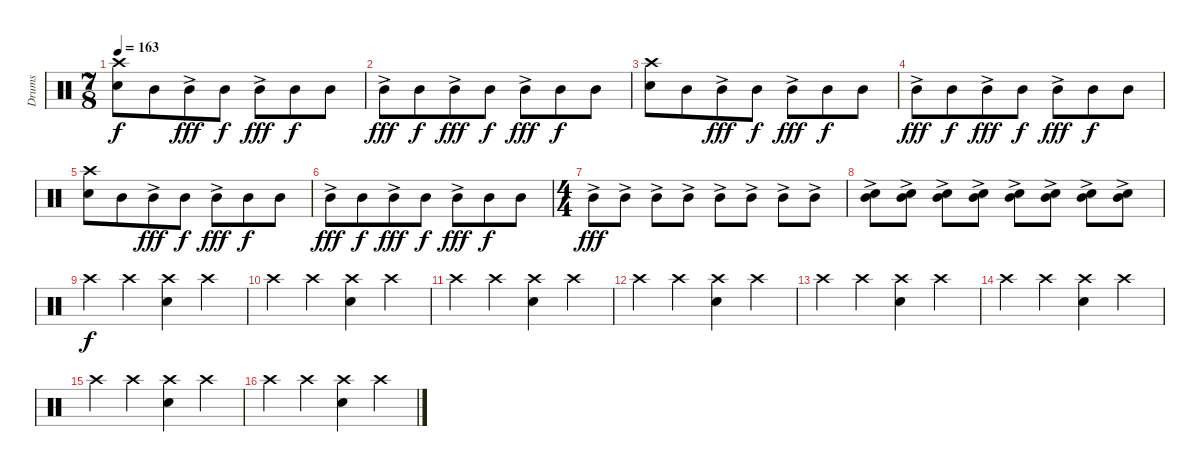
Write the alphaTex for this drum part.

\track ("Drums" "Drums") {instrument percussion}
\staff {score}
\articulation defaults
\ts (7 8)
\tempo 163
\clef neutral
\ks c
("Crash high (hit)" "Snare (hit) 2").8{dy f} "Mid Tom (hit)".8 "Mid Tom (hit)"{ac}.8{dy fff} "Mid Tom (hit)".8{dy f} "Mid Tom (hit)"{ac}.8{dy fff} "Mid Tom (hit)".8{dy f} "Mid Tom (hit)".8 |
"Mid Tom (hit)"{ac}.8{dy fff} "Mid Tom (hit)".8{dy f} "Mid Tom (hit)"{ac}.8{dy fff} "Mid Tom (hit)".8{dy f} "Mid Tom (hit)"{ac}.8{dy fff} "Mid Tom (hit)".8{dy f} "Mid Tom (hit)".8 |
("Crash high (hit)" "Snare (hit) 2").8 "Mid Tom (hit)".8 "Mid Tom (hit)"{ac}.8{dy fff} "Mid Tom (hit)".8{dy f} "Mid Tom (hit)"{ac}.8{dy fff} "Mid Tom (hit)".8{dy f} "Mid Tom (hit)".8 |
"Mid Tom (hit)"{ac}.8{dy fff} "Mid Tom (hit)".8{dy f} "Mid Tom (hit)"{ac}.8{dy fff} "Mid Tom (hit)".8{dy f} "Mid Tom (hit)"{ac}.8{dy fff} "Mid Tom (hit)".8{dy f} "Mid Tom (hit)".8 |
("Crash high (hit)" "Snare (hit) 2").8 "Mid Tom (hit)".8 "Mid Tom (hit)"{ac}.8{dy fff} "Mid Tom (hit)".8{dy f} "Mid Tom (hit)"{ac}.8{dy fff} "Mid Tom (hit)".8{dy f} "Mid Tom (hit)".8 |
"Mid Tom (hit)"{ac}.8{dy fff} "Mid Tom (hit)".8{dy f} "Mid Tom (hit)"{ac}.8{dy fff} "Mid Tom (hit)".8{dy f} "Mid Tom (hit)"{ac}.8{dy fff} "Mid Tom (hit)".8{dy f} "Mid Tom (hit)".8 |
\ts (4 4)
"Mid Tom (hit)"{ac}.8{dy fff} "Mid Tom (hit)"{ac}.8 "Mid Tom (hit)"{ac}.8 "Mid Tom (hit)"{ac}.8 "Mid Tom (hit)"{ac}.8 "Mid Tom (hit)"{ac}.8 "Mid Tom (hit)"{ac}.8 "Mid Tom (hit)"{ac}.8 |
("Snare (hit) 2" "Mid Tom (hit)"{ac}).8 ("Snare (hit) 2" "Mid Tom (hit)"{ac}).8 ("Snare (hit) 2" "Mid Tom (hit)"{ac}).8 ("Snare (hit) 2" "Mid Tom (hit)"{ac}).8 ("Snare (hit) 2"{ac} "Mid Tom (hit)"{ac}).8 ("Snare (hit) 2"{ac} "Mid Tom (hit)"{ac}).8 ("Snare (hit) 2"{ac} "Mid Tom (hit)"{ac}).8 ("Snare (hit) 2"{ac} "Mid Tom (hit)").8 |
"Crash high (hit)".4{dy f} "Crash high (hit)".4 ("Crash high (hit)" "Snare (hit) 2").4 "Crash high (hit)".4 |
"Crash high (hit)".4 "Crash high (hit)".4 ("Crash high (hit)" "Snare (hit) 2").4 "Crash high (hit)".4 |
"Crash high (hit)".4 "Crash high (hit)".4 ("Crash high (hit)" "Snare (hit) 2").4 "Crash high (hit)".4 |
"Crash high (hit)".4 "Crash high (hit)".4 ("Crash high (hit)" "Snare (hit) 2").4 "Crash high (hit)".4 |
"Crash high (hit)".4 "Crash high (hit)".4 ("Crash high (hit)" "Snare (hit) 2").4 "Crash high (hit)".4 |
"Crash high (hit)".4 "Crash high (hit)".4 ("Crash high (hit)" "Snare (hit) 2").4 "Crash high (hit)".4 |
"Crash high (hit)".4 "Crash high (hit)".4 ("Crash high (hit)" "Snare (hit) 2").4 "Crash high (hit)".4 |
"Crash high (hit)".4 "Crash high (hit)".4 ("Crash high (hit)" "Snare (hit) 2").4 "Crash high (hit)".4
